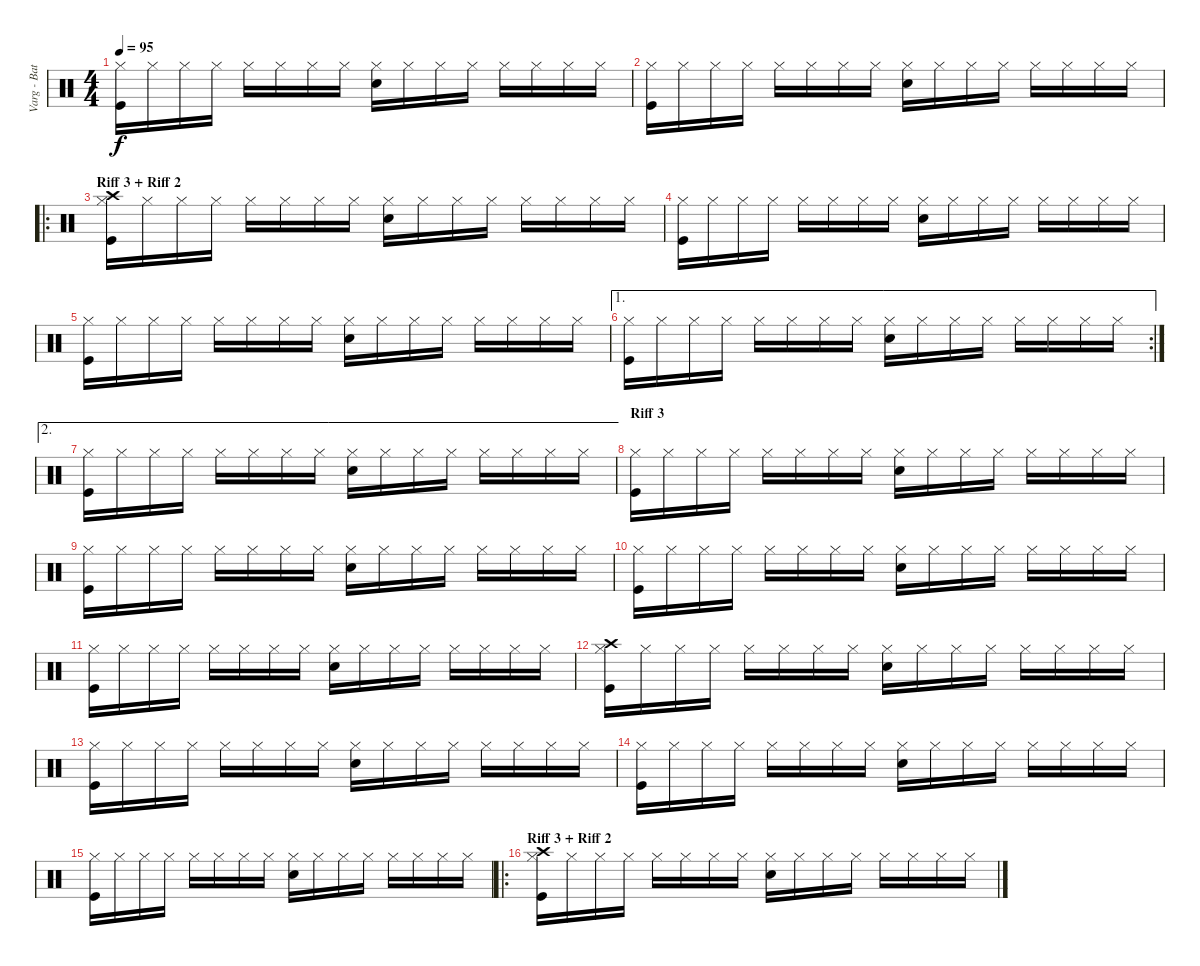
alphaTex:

\track ("Varg - Batterie" "Varg - Bat") {instrument percussion}
\staff {score}
\articulation defaults
\ts (4 4)
\tempo 95
\clef neutral
\ks c
("Hi-Hat (closed)" "Kick (hit)").16{dy f} "Hi-Hat (closed)".16 "Hi-Hat (closed)".16 "Hi-Hat (closed)".16 "Hi-Hat (closed)".16 "Hi-Hat (closed)".16 "Hi-Hat (closed)".16 "Hi-Hat (closed)".16 ("Hi-Hat (closed)" "Electric Snare (hit)").16 "Hi-Hat (closed)".16 "Hi-Hat (closed)".16 "Hi-Hat (closed)".16 "Hi-Hat (closed)".16 "Hi-Hat (closed)".16 "Hi-Hat (closed)".16 "Hi-Hat (closed)".16 |
("Hi-Hat (closed)" "Kick (hit)").16 "Hi-Hat (closed)".16 "Hi-Hat (closed)".16 "Hi-Hat (closed)".16 "Hi-Hat (closed)".16 "Hi-Hat (closed)".16 "Hi-Hat (closed)".16 "Hi-Hat (closed)".16 ("Hi-Hat (closed)" "Electric Snare (hit)").16 "Hi-Hat (closed)".16 "Hi-Hat (closed)".16 "Hi-Hat (closed)".16 "Hi-Hat (closed)".16 "Hi-Hat (closed)".16 "Hi-Hat (closed)".16 "Hi-Hat (closed)".16 |
\ro
\section ("" "Riff 3 + Riff 2")
("Hi-Hat (closed)" "Crash high (hit)" "Kick (hit)").16 "Hi-Hat (closed)".16 "Hi-Hat (closed)".16 "Hi-Hat (closed)".16 "Hi-Hat (closed)".16 "Hi-Hat (closed)".16 "Hi-Hat (closed)".16 "Hi-Hat (closed)".16 ("Hi-Hat (closed)" "Electric Snare (hit)").16 "Hi-Hat (closed)".16 "Hi-Hat (closed)".16 "Hi-Hat (closed)".16 "Hi-Hat (closed)".16 "Hi-Hat (closed)".16 "Hi-Hat (closed)".16 "Hi-Hat (closed)".16 |
("Hi-Hat (closed)" "Kick (hit)").16 "Hi-Hat (closed)".16 "Hi-Hat (closed)".16 "Hi-Hat (closed)".16 "Hi-Hat (closed)".16 "Hi-Hat (closed)".16 "Hi-Hat (closed)".16 "Hi-Hat (closed)".16 ("Hi-Hat (closed)" "Electric Snare (hit)").16 "Hi-Hat (closed)".16 "Hi-Hat (closed)".16 "Hi-Hat (closed)".16 "Hi-Hat (closed)".16 "Hi-Hat (closed)".16 "Hi-Hat (closed)".16 "Hi-Hat (closed)".16 |
("Hi-Hat (closed)" "Kick (hit)").16 "Hi-Hat (closed)".16 "Hi-Hat (closed)".16 "Hi-Hat (closed)".16 "Hi-Hat (closed)".16 "Hi-Hat (closed)".16 "Hi-Hat (closed)".16 "Hi-Hat (closed)".16 ("Hi-Hat (closed)" "Electric Snare (hit)").16 "Hi-Hat (closed)".16 "Hi-Hat (closed)".16 "Hi-Hat (closed)".16 "Hi-Hat (closed)".16 "Hi-Hat (closed)".16 "Hi-Hat (closed)".16 "Hi-Hat (closed)".16 |
\ae 1
\rc 2
("Hi-Hat (closed)" "Kick (hit)").16 "Hi-Hat (closed)".16 "Hi-Hat (closed)".16 "Hi-Hat (closed)".16 "Hi-Hat (closed)".16 "Hi-Hat (closed)".16 "Hi-Hat (closed)".16 "Hi-Hat (closed)".16 ("Hi-Hat (closed)" "Electric Snare (hit)").16 "Hi-Hat (closed)".16 "Hi-Hat (closed)".16 "Hi-Hat (closed)".16 "Hi-Hat (closed)".16 "Hi-Hat (closed)".16 "Hi-Hat (closed)".16 "Hi-Hat (closed)".16 |
\ae 2
("Hi-Hat (closed)" "Kick (hit)").16 "Hi-Hat (closed)".16 "Hi-Hat (closed)".16 "Hi-Hat (closed)".16 "Hi-Hat (closed)".16 "Hi-Hat (closed)".16 "Hi-Hat (closed)".16 "Hi-Hat (closed)".16 ("Hi-Hat (closed)" "Electric Snare (hit)").16 "Hi-Hat (closed)".16 "Hi-Hat (closed)".16 "Hi-Hat (closed)".16 "Hi-Hat (closed)".16 "Hi-Hat (closed)".16 "Hi-Hat (closed)".16 "Hi-Hat (closed)".16 |
\section ("" "Riff 3")
("Hi-Hat (closed)" "Kick (hit)").16 "Hi-Hat (closed)".16 "Hi-Hat (closed)".16 "Hi-Hat (closed)".16 "Hi-Hat (closed)".16 "Hi-Hat (closed)".16 "Hi-Hat (closed)".16 "Hi-Hat (closed)".16 ("Hi-Hat (closed)" "Electric Snare (hit)").16 "Hi-Hat (closed)".16 "Hi-Hat (closed)".16 "Hi-Hat (closed)".16 "Hi-Hat (closed)".16 "Hi-Hat (closed)".16 "Hi-Hat (closed)".16 "Hi-Hat (closed)".16 |
("Hi-Hat (closed)" "Kick (hit)").16 "Hi-Hat (closed)".16 "Hi-Hat (closed)".16 "Hi-Hat (closed)".16 "Hi-Hat (closed)".16 "Hi-Hat (closed)".16 "Hi-Hat (closed)".16 "Hi-Hat (closed)".16 ("Hi-Hat (closed)" "Electric Snare (hit)").16 "Hi-Hat (closed)".16 "Hi-Hat (closed)".16 "Hi-Hat (closed)".16 "Hi-Hat (closed)".16 "Hi-Hat (closed)".16 "Hi-Hat (closed)".16 "Hi-Hat (closed)".16 |
("Hi-Hat (closed)" "Kick (hit)").16 "Hi-Hat (closed)".16 "Hi-Hat (closed)".16 "Hi-Hat (closed)".16 "Hi-Hat (closed)".16 "Hi-Hat (closed)".16 "Hi-Hat (closed)".16 "Hi-Hat (closed)".16 ("Hi-Hat (closed)" "Electric Snare (hit)").16 "Hi-Hat (closed)".16 "Hi-Hat (closed)".16 "Hi-Hat (closed)".16 "Hi-Hat (closed)".16 "Hi-Hat (closed)".16 "Hi-Hat (closed)".16 "Hi-Hat (closed)".16 |
("Hi-Hat (closed)" "Kick (hit)").16 "Hi-Hat (closed)".16 "Hi-Hat (closed)".16 "Hi-Hat (closed)".16 "Hi-Hat (closed)".16 "Hi-Hat (closed)".16 "Hi-Hat (closed)".16 "Hi-Hat (closed)".16 ("Hi-Hat (closed)" "Electric Snare (hit)").16 "Hi-Hat (closed)".16 "Hi-Hat (closed)".16 "Hi-Hat (closed)".16 "Hi-Hat (closed)".16 "Hi-Hat (closed)".16 "Hi-Hat (closed)".16 "Hi-Hat (closed)".16 |
("Hi-Hat (closed)" "Crash high (hit)" "Kick (hit)").16 "Hi-Hat (closed)".16 "Hi-Hat (closed)".16 "Hi-Hat (closed)".16 "Hi-Hat (closed)".16 "Hi-Hat (closed)".16 "Hi-Hat (closed)".16 "Hi-Hat (closed)".16 ("Hi-Hat (closed)" "Electric Snare (hit)").16 "Hi-Hat (closed)".16 "Hi-Hat (closed)".16 "Hi-Hat (closed)".16 "Hi-Hat (closed)".16 "Hi-Hat (closed)".16 "Hi-Hat (closed)".16 "Hi-Hat (closed)".16 |
("Hi-Hat (closed)" "Kick (hit)").16 "Hi-Hat (closed)".16 "Hi-Hat (closed)".16 "Hi-Hat (closed)".16 "Hi-Hat (closed)".16 "Hi-Hat (closed)".16 "Hi-Hat (closed)".16 "Hi-Hat (closed)".16 ("Hi-Hat (closed)" "Electric Snare (hit)").16 "Hi-Hat (closed)".16 "Hi-Hat (closed)".16 "Hi-Hat (closed)".16 "Hi-Hat (closed)".16 "Hi-Hat (closed)".16 "Hi-Hat (closed)".16 "Hi-Hat (closed)".16 |
("Hi-Hat (closed)" "Kick (hit)").16 "Hi-Hat (closed)".16 "Hi-Hat (closed)".16 "Hi-Hat (closed)".16 "Hi-Hat (closed)".16 "Hi-Hat (closed)".16 "Hi-Hat (closed)".16 "Hi-Hat (closed)".16 ("Hi-Hat (closed)" "Electric Snare (hit)").16 "Hi-Hat (closed)".16 "Hi-Hat (closed)".16 "Hi-Hat (closed)".16 "Hi-Hat (closed)".16 "Hi-Hat (closed)".16 "Hi-Hat (closed)".16 "Hi-Hat (closed)".16 |
("Hi-Hat (closed)" "Kick (hit)").16 "Hi-Hat (closed)".16 "Hi-Hat (closed)".16 "Hi-Hat (closed)".16 "Hi-Hat (closed)".16 "Hi-Hat (closed)".16 "Hi-Hat (closed)".16 "Hi-Hat (closed)".16 ("Hi-Hat (closed)" "Electric Snare (hit)").16 "Hi-Hat (closed)".16 "Hi-Hat (closed)".16 "Hi-Hat (closed)".16 "Hi-Hat (closed)".16 "Hi-Hat (closed)".16 "Hi-Hat (closed)".16 "Hi-Hat (closed)".16 |
\ro
\section ("" "Riff 3 + Riff 2")
("Hi-Hat (closed)" "Crash high (hit)" "Kick (hit)").16 "Hi-Hat (closed)".16 "Hi-Hat (closed)".16 "Hi-Hat (closed)".16 "Hi-Hat (closed)".16 "Hi-Hat (closed)".16 "Hi-Hat (closed)".16 "Hi-Hat (closed)".16 ("Hi-Hat (closed)" "Electric Snare (hit)").16 "Hi-Hat (closed)".16 "Hi-Hat (closed)".16 "Hi-Hat (closed)".16 "Hi-Hat (closed)".16 "Hi-Hat (closed)".16 "Hi-Hat (closed)".16 "Hi-Hat (closed)".16
